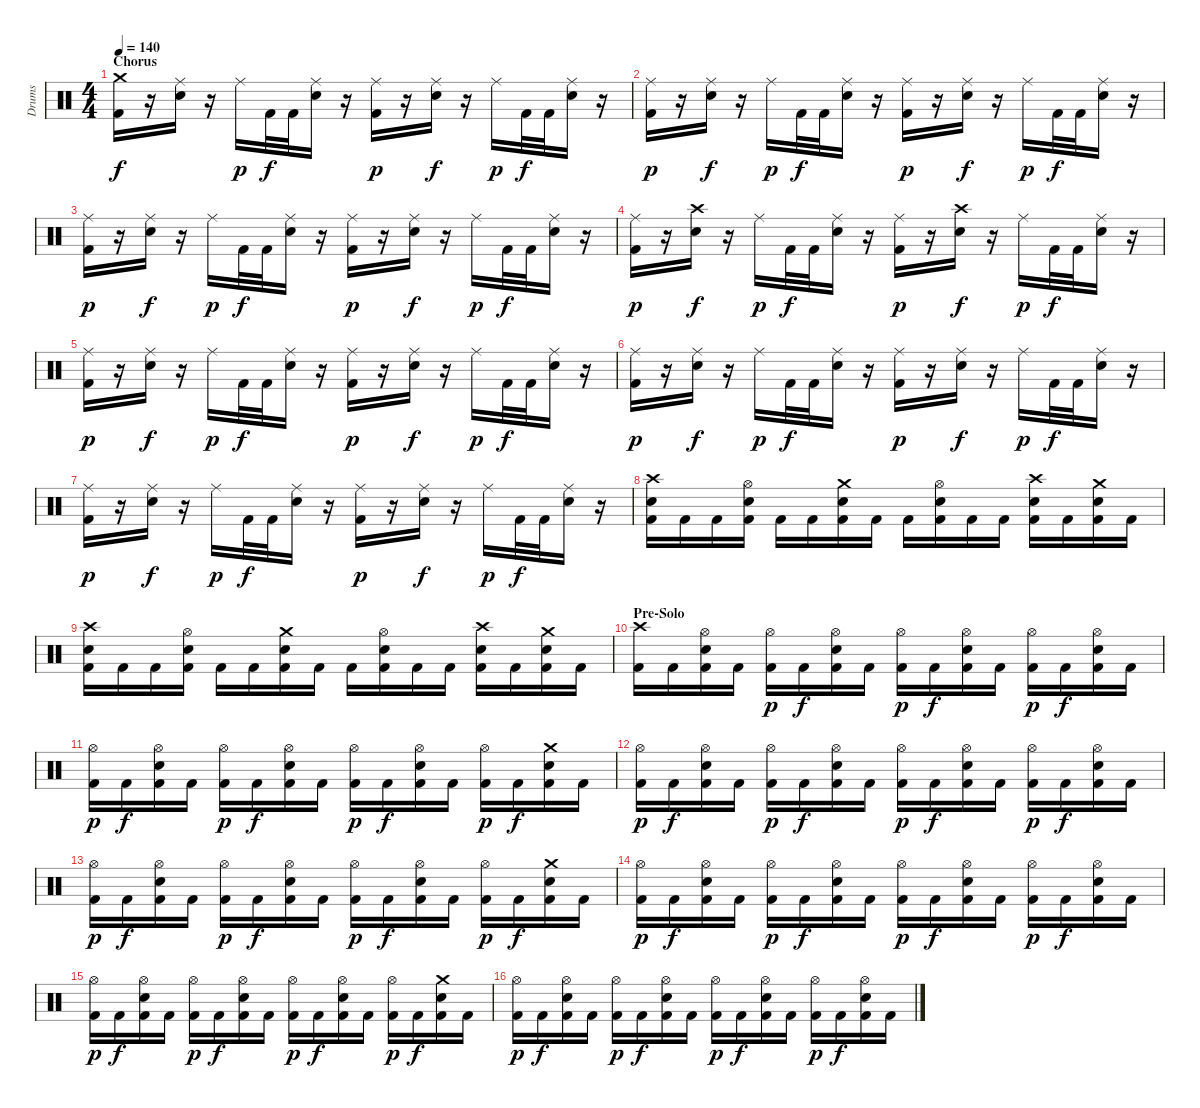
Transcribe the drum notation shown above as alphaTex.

\track ("Drums" "Drums") {instrument percussion}
\staff {score}
\articulation defaults
\ts (4 4)
\section ("" "Chorus")
\tempo 140
\clef neutral
\ks c
("Crash medium (hit)" "Kick (hit) 2").16{dy f} r.16 ("Ride (middle)" "Snare (hit) 2").16 r.16 "Ride (middle)".16{dy p} "Kick (hit) 2".32{dy f} "Kick (hit) 2".32 ("Ride (middle)" "Snare (hit) 2").16 r.16 ("Ride (middle)" "Kick (hit) 2").16{dy p} r.16 ("Ride (middle)" "Snare (hit) 2").16{dy f} r.16 "Ride (middle)".16{dy p} "Kick (hit) 2".32{dy f} "Kick (hit) 2".32 ("Ride (middle)" "Snare (hit) 2").16 r.16 |
("Ride (middle)" "Kick (hit) 2").16{dy p} r.16 ("Ride (middle)" "Snare (hit) 2").16{dy f} r.16 "Ride (middle)".16{dy p} "Kick (hit) 2".32{dy f} "Kick (hit) 2".32 ("Ride (middle)" "Snare (hit) 2").16 r.16 ("Ride (middle)" "Kick (hit) 2").16{dy p} r.16 ("Ride (middle)" "Snare (hit) 2").16{dy f} r.16 "Ride (middle)".16{dy p} "Kick (hit) 2".32{dy f} "Kick (hit) 2".32 ("Ride (middle)" "Snare (hit) 2").16 r.16 |
("Ride (middle)" "Kick (hit) 2").16{dy p} r.16 ("Ride (middle)" "Snare (hit) 2").16{dy f} r.16 "Ride (middle)".16{dy p} "Kick (hit) 2".32{dy f} "Kick (hit) 2".32 ("Ride (middle)" "Snare (hit) 2").16 r.16 ("Ride (middle)" "Kick (hit) 2").16{dy p} r.16 ("Ride (middle)" "Snare (hit) 2").16{dy f} r.16 "Ride (middle)".16{dy p} "Kick (hit) 2".32{dy f} "Kick (hit) 2".32 ("Ride (middle)" "Snare (hit) 2").16 r.16 |
("Ride (middle)" "Kick (hit) 2").16{dy p} r.16 ("Crash high (hit)" "Snare (hit) 2").16{dy f} r.16 "Ride (middle)".16{dy p} "Kick (hit) 2".32{dy f} "Kick (hit) 2".32 ("Ride (middle)" "Snare (hit) 2").16 r.16 ("Ride (middle)" "Kick (hit) 2").16{dy p} r.16 ("Crash high (hit)" "Snare (hit) 2").16{dy f} r.16 "Ride (middle)".16{dy p} "Kick (hit) 2".32{dy f} "Kick (hit) 2".32 ("Ride (middle)" "Snare (hit) 2").16 r.16 |
("Ride (middle)" "Kick (hit) 2").16{dy p} r.16 ("Ride (middle)" "Snare (hit) 2").16{dy f} r.16 "Ride (middle)".16{dy p} "Kick (hit) 2".32{dy f} "Kick (hit) 2".32 ("Ride (middle)" "Snare (hit) 2").16 r.16 ("Ride (middle)" "Kick (hit) 2").16{dy p} r.16 ("Ride (middle)" "Snare (hit) 2").16{dy f} r.16 "Ride (middle)".16{dy p} "Kick (hit) 2".32{dy f} "Kick (hit) 2".32 ("Ride (middle)" "Snare (hit) 2").16 r.16 |
("Ride (middle)" "Kick (hit) 2").16{dy p} r.16 ("Ride (middle)" "Snare (hit) 2").16{dy f} r.16 "Ride (middle)".16{dy p} "Kick (hit) 2".32{dy f} "Kick (hit) 2".32 ("Ride (middle)" "Snare (hit) 2").16 r.16 ("Ride (middle)" "Kick (hit) 2").16{dy p} r.16 ("Ride (middle)" "Snare (hit) 2").16{dy f} r.16 "Ride (middle)".16{dy p} "Kick (hit) 2".32{dy f} "Kick (hit) 2".32 ("Ride (middle)" "Snare (hit) 2").16 r.16 |
("Ride (middle)" "Kick (hit) 2").16{dy p} r.16 ("Ride (middle)" "Snare (hit) 2").16{dy f} r.16 "Ride (middle)".16{dy p} "Kick (hit) 2".32{dy f} "Kick (hit) 2".32 ("Ride (middle)" "Snare (hit) 2").16 r.16 ("Ride (middle)" "Kick (hit) 2").16{dy p} r.16 ("Ride (middle)" "Snare (hit) 2").16{dy f} r.16 "Ride (middle)".16{dy p} "Kick (hit) 2".32{dy f} "Kick (hit) 2".32 ("Ride (middle)" "Snare (hit) 2").16 r.16 |
("Crash high (hit)" "Snare (hit) 2" "Kick (hit) 2").16 "Kick (hit) 2".16 "Kick (hit) 2".16 ("Hi-Hat (open)" "Snare (hit) 2" "Kick (hit) 2").16 "Kick (hit) 2".16 "Kick (hit) 2".16 ("Crash medium (hit)" "Snare (hit) 2" "Kick (hit) 2").16 "Kick (hit) 2".16 "Kick (hit) 2".16 ("Hi-Hat (open)" "Snare (hit) 2" "Kick (hit) 2").16 "Kick (hit) 2".16 "Kick (hit) 2".16 ("Crash high (hit)" "Snare (hit) 2" "Kick (hit) 2").16 "Kick (hit) 2".16 ("Crash medium (hit)" "Snare (hit) 2" "Kick (hit) 2").16 "Kick (hit) 2".16 |
("Crash high (hit)" "Snare (hit) 2" "Kick (hit) 2").16 "Kick (hit) 2".16 "Kick (hit) 2".16 ("Hi-Hat (open)" "Snare (hit) 2" "Kick (hit) 2").16 "Kick (hit) 2".16 "Kick (hit) 2".16 ("Crash medium (hit)" "Snare (hit) 2" "Kick (hit) 2").16 "Kick (hit) 2".16 "Kick (hit) 2".16 ("Hi-Hat (open)" "Snare (hit) 2" "Kick (hit) 2").16 "Kick (hit) 2".16 "Kick (hit) 2".16 ("Crash high (hit)" "Snare (hit) 2" "Kick (hit) 2").16 "Kick (hit) 2".16 ("Crash medium (hit)" "Snare (hit) 2" "Kick (hit) 2").16 "Kick (hit) 2".16 |
\section ("" "Pre-Solo")
("Crash high (hit)" "Kick (hit) 2").16 "Kick (hit) 2".16 ("Hi-Hat (open)" "Snare (hit) 2" "Kick (hit) 2").16 "Kick (hit) 2".16 ("Hi-Hat (open)" "Kick (hit) 2").16{dy p} "Kick (hit) 2".16{dy f} ("Hi-Hat (open)" "Snare (hit) 2" "Kick (hit) 2").16 "Kick (hit) 2".16 ("Hi-Hat (open)" "Kick (hit) 2").16{dy p} "Kick (hit) 2".16{dy f} ("Hi-Hat (open)" "Snare (hit) 2" "Kick (hit) 2").16 "Kick (hit) 2".16 ("Hi-Hat (open)" "Kick (hit) 2").16{dy p} "Kick (hit) 2".16{dy f} ("Hi-Hat (open)" "Snare (hit) 2" "Kick (hit) 2").16 "Kick (hit) 2".16 |
("Hi-Hat (open)" "Kick (hit) 2").16{dy p} "Kick (hit) 2".16{dy f} ("Hi-Hat (open)" "Snare (hit) 2" "Kick (hit) 2").16 "Kick (hit) 2".16 ("Hi-Hat (open)" "Kick (hit) 2").16{dy p} "Kick (hit) 2".16{dy f} ("Hi-Hat (open)" "Snare (hit) 2" "Kick (hit) 2").16 "Kick (hit) 2".16 ("Hi-Hat (open)" "Kick (hit) 2").16{dy p} "Kick (hit) 2".16{dy f} ("Hi-Hat (open)" "Snare (hit) 2" "Kick (hit) 2").16 "Kick (hit) 2".16 ("Hi-Hat (open)" "Kick (hit) 2").16{dy p} "Kick (hit) 2".16{dy f} ("Crash medium (hit)" "Snare (hit) 2" "Kick (hit) 2").16 "Kick (hit) 2".16 |
("Hi-Hat (open)" "Kick (hit) 2").16{dy p} "Kick (hit) 2".16{dy f} ("Hi-Hat (open)" "Snare (hit) 2" "Kick (hit) 2").16 "Kick (hit) 2".16 ("Hi-Hat (open)" "Kick (hit) 2").16{dy p} "Kick (hit) 2".16{dy f} ("Hi-Hat (open)" "Snare (hit) 2" "Kick (hit) 2").16 "Kick (hit) 2".16 ("Hi-Hat (open)" "Kick (hit) 2").16{dy p} "Kick (hit) 2".16{dy f} ("Hi-Hat (open)" "Snare (hit) 2" "Kick (hit) 2").16 "Kick (hit) 2".16 ("Hi-Hat (open)" "Kick (hit) 2").16{dy p} "Kick (hit) 2".16{dy f} ("Hi-Hat (open)" "Snare (hit) 2" "Kick (hit) 2").16 "Kick (hit) 2".16 |
("Hi-Hat (open)" "Kick (hit) 2").16{dy p} "Kick (hit) 2".16{dy f} ("Hi-Hat (open)" "Snare (hit) 2" "Kick (hit) 2").16 "Kick (hit) 2".16 ("Hi-Hat (open)" "Kick (hit) 2").16{dy p} "Kick (hit) 2".16{dy f} ("Hi-Hat (open)" "Snare (hit) 2" "Kick (hit) 2").16 "Kick (hit) 2".16 ("Hi-Hat (open)" "Kick (hit) 2").16{dy p} "Kick (hit) 2".16{dy f} ("Hi-Hat (open)" "Snare (hit) 2" "Kick (hit) 2").16 "Kick (hit) 2".16 ("Hi-Hat (open)" "Kick (hit) 2").16{dy p} "Kick (hit) 2".16{dy f} ("Crash medium (hit)" "Snare (hit) 2" "Kick (hit) 2").16 "Kick (hit) 2".16 |
("Hi-Hat (open)" "Kick (hit) 2").16{dy p} "Kick (hit) 2".16{dy f} ("Hi-Hat (open)" "Snare (hit) 2" "Kick (hit) 2").16 "Kick (hit) 2".16 ("Hi-Hat (open)" "Kick (hit) 2").16{dy p} "Kick (hit) 2".16{dy f} ("Hi-Hat (open)" "Snare (hit) 2" "Kick (hit) 2").16 "Kick (hit) 2".16 ("Hi-Hat (open)" "Kick (hit) 2").16{dy p} "Kick (hit) 2".16{dy f} ("Hi-Hat (open)" "Snare (hit) 2" "Kick (hit) 2").16 "Kick (hit) 2".16 ("Hi-Hat (open)" "Kick (hit) 2").16{dy p} "Kick (hit) 2".16{dy f} ("Hi-Hat (open)" "Snare (hit) 2" "Kick (hit) 2").16 "Kick (hit) 2".16 |
("Hi-Hat (open)" "Kick (hit) 2").16{dy p} "Kick (hit) 2".16{dy f} ("Hi-Hat (open)" "Snare (hit) 2" "Kick (hit) 2").16 "Kick (hit) 2".16 ("Hi-Hat (open)" "Kick (hit) 2").16{dy p} "Kick (hit) 2".16{dy f} ("Hi-Hat (open)" "Snare (hit) 2" "Kick (hit) 2").16 "Kick (hit) 2".16 ("Hi-Hat (open)" "Kick (hit) 2").16{dy p} "Kick (hit) 2".16{dy f} ("Hi-Hat (open)" "Snare (hit) 2" "Kick (hit) 2").16 "Kick (hit) 2".16 ("Hi-Hat (open)" "Kick (hit) 2").16{dy p} "Kick (hit) 2".16{dy f} ("Crash medium (hit)" "Snare (hit) 2" "Kick (hit) 2").16 "Kick (hit) 2".16 |
("Hi-Hat (open)" "Kick (hit) 2").16{dy p} "Kick (hit) 2".16{dy f} ("Hi-Hat (open)" "Snare (hit) 2" "Kick (hit) 2").16 "Kick (hit) 2".16 ("Hi-Hat (open)" "Kick (hit) 2").16{dy p} "Kick (hit) 2".16{dy f} ("Hi-Hat (open)" "Snare (hit) 2" "Kick (hit) 2").16 "Kick (hit) 2".16 ("Hi-Hat (open)" "Kick (hit) 2").16{dy p} "Kick (hit) 2".16{dy f} ("Hi-Hat (open)" "Snare (hit) 2" "Kick (hit) 2").16 "Kick (hit) 2".16 ("Hi-Hat (open)" "Kick (hit) 2").16{dy p} "Kick (hit) 2".16{dy f} ("Hi-Hat (open)" "Snare (hit) 2" "Kick (hit) 2").16 "Kick (hit) 2".16
